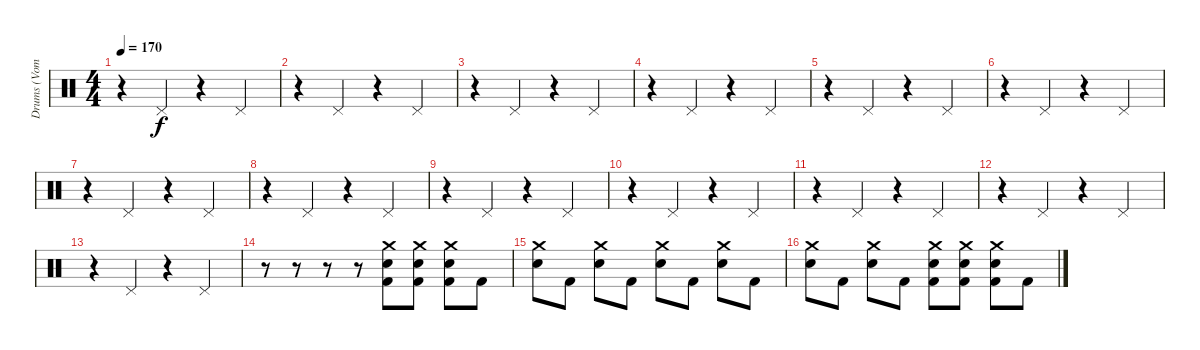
\track ("Drums (Vom)" "Drums (Vom") {instrument percussion}
\staff {score}
\articulation defaults
\ts (4 4)
\tempo 170
\clef neutral
\ks c
r.4{dy f} "Pedal Hi-Hat (hit)".4 r.4 "Pedal Hi-Hat (hit)".4 |
r.4 "Pedal Hi-Hat (hit)".4 r.4 "Pedal Hi-Hat (hit)".4 |
r.4 "Pedal Hi-Hat (hit)".4 r.4 "Pedal Hi-Hat (hit)".4 |
r.4 "Pedal Hi-Hat (hit)".4 r.4 "Pedal Hi-Hat (hit)".4 |
r.4 "Pedal Hi-Hat (hit)".4 r.4 "Pedal Hi-Hat (hit)".4 |
r.4 "Pedal Hi-Hat (hit)".4 r.4 "Pedal Hi-Hat (hit)".4 |
r.4 "Pedal Hi-Hat (hit)".4 r.4 "Pedal Hi-Hat (hit)".4 |
r.4 "Pedal Hi-Hat (hit)".4 r.4 "Pedal Hi-Hat (hit)".4 |
r.4 "Pedal Hi-Hat (hit)".4 r.4 "Pedal Hi-Hat (hit)".4 |
r.4 "Pedal Hi-Hat (hit)".4 r.4 "Pedal Hi-Hat (hit)".4 |
r.4 "Pedal Hi-Hat (hit)".4 r.4 "Pedal Hi-Hat (hit)".4 |
r.4 "Pedal Hi-Hat (hit)".4 r.4 "Pedal Hi-Hat (hit)".4 |
r.4 "Pedal Hi-Hat (hit)".4 r.4 "Pedal Hi-Hat (hit)".4 |
r.8 r.8 r.8 r.8 ("Crash medium (hit)" "Snare (hit) 2" "Kick (hit) 2").8 ("Crash medium (hit)" "Snare (hit) 2" "Kick (hit) 2").8 ("Crash medium (hit)" "Snare (hit) 2" "Kick (hit) 2").8 "Kick (hit) 2".8 |
("Crash medium (hit)" "Snare (hit) 2").8 "Kick (hit) 2".8 ("Crash medium (hit)" "Snare (hit) 2").8 "Kick (hit) 2".8 ("Crash medium (hit)" "Snare (hit) 2").8 "Kick (hit) 2".8 ("Crash medium (hit)" "Snare (hit) 2").8 "Kick (hit) 2".8 |
("Crash medium (hit)" "Snare (hit) 2").8 "Kick (hit) 2".8 ("Crash medium (hit)" "Snare (hit) 2").8 "Kick (hit) 2".8 ("Crash medium (hit)" "Snare (hit) 2" "Kick (hit) 2").8 ("Crash medium (hit)" "Snare (hit) 2" "Kick (hit) 2").8 ("Crash medium (hit)" "Snare (hit) 2" "Kick (hit) 2").8 "Kick (hit) 2".8
